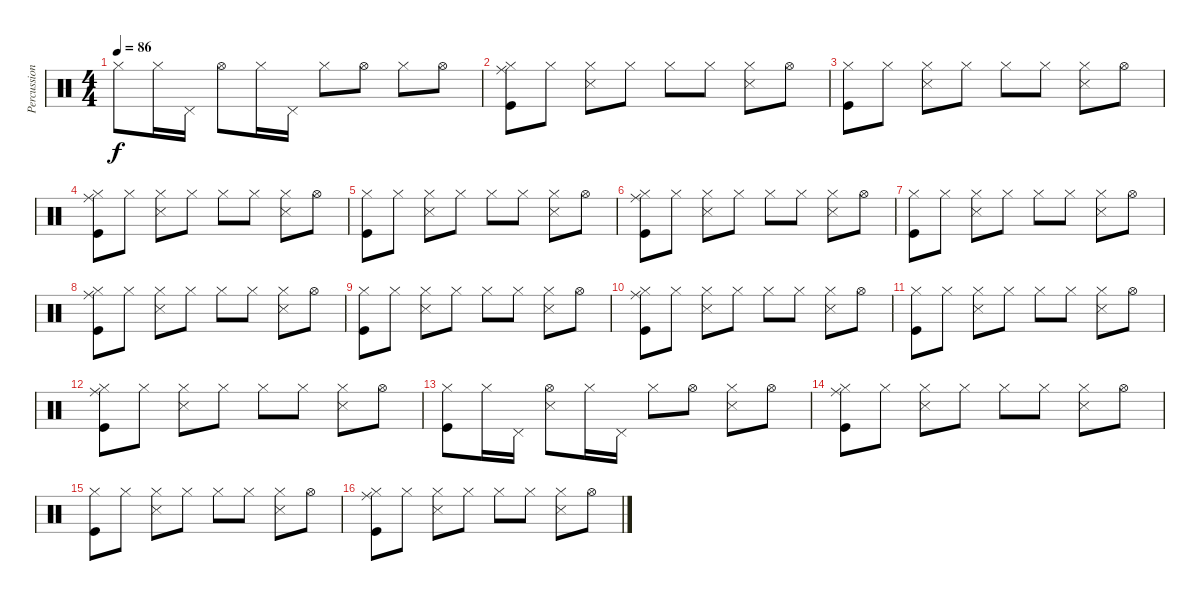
\track ("Percussion" "Percussion") {instrument percussion}
\staff {score}
\articulation defaults
\ts (4 4)
\tempo 86
\clef neutral
\ks c "Hi-Hat (closed)".8{dy f} "Hi-Hat (closed)".16 "Pedal Hi-Hat (hit)".16 "Hi-Hat (open)".8 "Hi-Hat (closed)".16 "Pedal Hi-Hat (hit)".16 "Hi-Hat (closed)".8 "Hi-Hat (open)".8 "Hi-Hat (closed)".8 "Hi-Hat (open)".8
|
("Kick (hit)" "Ride (middle)" "Hi-Hat (closed)").8 "Hi-Hat (closed)".8 ("Hi-Hat (closed)" "Snare (side stick) 3").8 "Hi-Hat (closed)".8 "Hi-Hat (closed)".8 "Hi-Hat (closed)".8 ("Hi-Hat (closed)" "Snare (side stick) 3").8 "Hi-Hat (open)".8 |
("Kick (hit)" "Hi-Hat (closed)").8 "Hi-Hat (closed)".8 ("Hi-Hat (closed)" "Snare (side stick) 3").8 "Hi-Hat (closed)".8 "Hi-Hat (closed)".8 "Hi-Hat (closed)".8 ("Hi-Hat (closed)" "Snare (side stick) 3").8 "Hi-Hat (open)".8 |
("Kick (hit)" "Ride (middle)" "Hi-Hat (closed)").8 "Hi-Hat (closed)".8 ("Hi-Hat (closed)" "Snare (side stick) 3").8 "Hi-Hat (closed)".8 "Hi-Hat (closed)".8 "Hi-Hat (closed)".8 ("Hi-Hat (closed)" "Snare (side stick) 3").8 "Hi-Hat (open)".8 |
("Kick (hit)" "Hi-Hat (closed)").8 "Hi-Hat (closed)".8 ("Hi-Hat (closed)" "Snare (side stick) 3").8 "Hi-Hat (closed)".8 "Hi-Hat (closed)".8 "Hi-Hat (closed)".8 ("Hi-Hat (closed)" "Snare (side stick) 3").8 "Hi-Hat (open)".8 |
("Kick (hit)" "Ride (middle)" "Hi-Hat (closed)").8 "Hi-Hat (closed)".8 ("Hi-Hat (closed)" "Snare (side stick) 3").8 "Hi-Hat (closed)".8 "Hi-Hat (closed)".8 "Hi-Hat (closed)".8 ("Hi-Hat (closed)" "Snare (side stick) 3").8 "Hi-Hat (open)".8 |
("Kick (hit)" "Hi-Hat (closed)").8 "Hi-Hat (closed)".8 ("Hi-Hat (closed)" "Snare (side stick) 3").8 "Hi-Hat (closed)".8 "Hi-Hat (closed)".8 "Hi-Hat (closed)".8 ("Hi-Hat (closed)" "Snare (side stick) 3").8 "Hi-Hat (open)".8 |
("Kick (hit)" "Ride (middle)" "Hi-Hat (closed)").8 "Hi-Hat (closed)".8 ("Hi-Hat (closed)" "Snare (side stick) 3").8 "Hi-Hat (closed)".8 "Hi-Hat (closed)".8 "Hi-Hat (closed)".8 ("Hi-Hat (closed)" "Snare (side stick) 3").8 "Hi-Hat (open)".8 |
("Kick (hit)" "Hi-Hat (closed)").8 "Hi-Hat (closed)".8 ("Hi-Hat (closed)" "Snare (side stick) 3").8 "Hi-Hat (closed)".8 "Hi-Hat (closed)".8 "Hi-Hat (closed)".8 ("Hi-Hat (closed)" "Snare (side stick) 3").8 "Hi-Hat (open)".8 |
("Kick (hit)" "Ride (middle)" "Hi-Hat (closed)").8 "Hi-Hat (closed)".8 ("Hi-Hat (closed)" "Snare (side stick) 3").8 "Hi-Hat (closed)".8 "Hi-Hat (closed)".8 "Hi-Hat (closed)".8 ("Hi-Hat (closed)" "Snare (side stick) 3").8 "Hi-Hat (open)".8 |
("Kick (hit)" "Hi-Hat (closed)").8 "Hi-Hat (closed)".8 ("Hi-Hat (closed)" "Snare (side stick) 3").8 "Hi-Hat (closed)".8 "Hi-Hat (closed)".8 "Hi-Hat (closed)".8 ("Hi-Hat (closed)" "Snare (side stick) 3").8 "Hi-Hat (open)".8 |
("Kick (hit)" "Ride (middle)" "Hi-Hat (closed)").8 "Hi-Hat (closed)".8 ("Hi-Hat (closed)" "Snare (side stick) 3").8 "Hi-Hat (closed)".8 "Hi-Hat (closed)".8 "Hi-Hat (closed)".8 ("Hi-Hat (closed)" "Snare (side stick) 3").8 "Hi-Hat (open)".8 |
("Kick (hit)" "Hi-Hat (closed)").8 "Hi-Hat (closed)".16 "Pedal Hi-Hat (hit)".16 ("Hi-Hat (open)" "Snare (side stick) 3").8 "Hi-Hat (closed)".16 "Pedal Hi-Hat (hit)".16 "Hi-Hat (closed)".8 "Hi-Hat (open)".8 ("Hi-Hat (closed)" "Snare (side stick) 3").8 "Hi-Hat (open)".8 |
("Kick (hit)" "Ride (middle)" "Hi-Hat (closed)").8 "Hi-Hat (closed)".8 ("Hi-Hat (closed)" "Snare (side stick) 3").8 "Hi-Hat (closed)".8 "Hi-Hat (closed)".8 "Hi-Hat (closed)".8 ("Hi-Hat (closed)" "Snare (side stick) 3").8 "Hi-Hat (open)".8 |
("Kick (hit)" "Hi-Hat (closed)").8 "Hi-Hat (closed)".8 ("Hi-Hat (closed)" "Snare (side stick) 3").8 "Hi-Hat (closed)".8 "Hi-Hat (closed)".8 "Hi-Hat (closed)".8 ("Hi-Hat (closed)" "Snare (side stick) 3").8 "Hi-Hat (open)".8 |
("Kick (hit)" "Ride (middle)" "Hi-Hat (closed)").8 "Hi-Hat (closed)".8 ("Hi-Hat (closed)" "Snare (side stick) 3").8 "Hi-Hat (closed)".8 "Hi-Hat (closed)".8 "Hi-Hat (closed)".8 ("Hi-Hat (closed)" "Snare (side stick) 3").8 "Hi-Hat (open)".8
